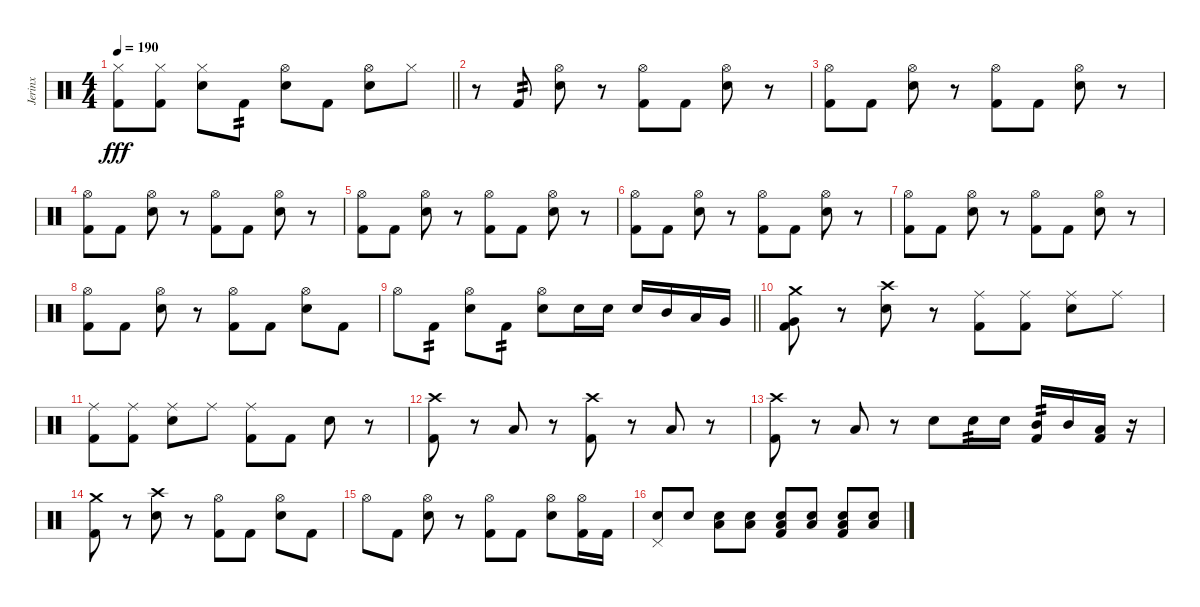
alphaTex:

\track ("Jerinx" "Jerinx") {instrument percussion}
\staff {score}
\articulation defaults
\ts (4 4)
\tempo 190
\clef neutral
\barLineRight lightlight
\ks c
("Hi-Hat (closed)" "Kick (hit) 2").8{dy fff} ("Hi-Hat (closed)" "Kick (hit) 2").8 ("Hi-Hat (closed)" "Electric Snare (hit)").8 "Kick (hit) 2".8{tp 2} ("Hi-Hat (open)" "Electric Snare (hit)").8 "Kick (hit) 2".8 ("Hi-Hat (open)" "Electric Snare (hit)").8 "Hi-Hat (closed)".8 |
\section ("" "")
r.8 "Kick (hit) 2".8{tp 2} ("Hi-Hat (open)" "Electric Snare (hit)").8 r.8 ("Hi-Hat (open)" "Kick (hit) 2").8 "Kick (hit) 2".8 ("Hi-Hat (open)" "Electric Snare (hit)").8 r.8 |
("Hi-Hat (open)" "Kick (hit) 2").8 "Kick (hit) 2".8 ("Hi-Hat (open)" "Electric Snare (hit)").8 r.8 ("Hi-Hat (open)" "Kick (hit) 2").8 "Kick (hit) 2".8 ("Hi-Hat (open)" "Electric Snare (hit)").8 r.8 |
("Hi-Hat (open)" "Kick (hit) 2").8 "Kick (hit) 2".8 ("Hi-Hat (open)" "Electric Snare (hit)").8 r.8 ("Hi-Hat (open)" "Kick (hit) 2").8 "Kick (hit) 2".8 ("Hi-Hat (open)" "Electric Snare (hit)").8 r.8 |
("Hi-Hat (open)" "Kick (hit) 2").8 "Kick (hit) 2".8 ("Hi-Hat (open)" "Electric Snare (hit)").8 r.8 ("Hi-Hat (open)" "Kick (hit) 2").8 "Kick (hit) 2".8 ("Hi-Hat (open)" "Electric Snare (hit)").8 r.8 |
("Hi-Hat (open)" "Kick (hit) 2").8 "Kick (hit) 2".8 ("Hi-Hat (open)" "Electric Snare (hit)").8 r.8 ("Hi-Hat (open)" "Kick (hit) 2").8 "Kick (hit) 2".8 ("Hi-Hat (open)" "Electric Snare (hit)").8 r.8 |
("Hi-Hat (open)" "Kick (hit) 2").8 "Kick (hit) 2".8 ("Hi-Hat (open)" "Electric Snare (hit)").8 r.8 ("Hi-Hat (open)" "Kick (hit) 2").8 "Kick (hit) 2".8 ("Hi-Hat (open)" "Electric Snare (hit)").8 r.8 |
("Hi-Hat (open)" "Kick (hit) 2").8 "Kick (hit) 2".8 ("Hi-Hat (open)" "Electric Snare (hit)").8 r.8 ("Hi-Hat (open)" "Kick (hit) 2").8 "Kick (hit) 2".8 ("Hi-Hat (open)" "Electric Snare (hit)").8 "Kick (hit) 2".8 |
\barLineRight lightlight "Hi-Hat (open)".8 "Kick (hit) 2".8{tp 2}
("Hi-Hat (open)" "Electric Snare (hit)").8 "Kick (hit) 2".8{tp 2} ("Hi-Hat (open)" "Electric Snare (hit)").8 "Electric Snare (hit)".16 "Electric Snare (hit)".16 "Electric Snare (hit)".16 "Mid Tom (hit)".16 "Low Tom (hit)".16 "Very Low Tom (hit)".16 |
\section ("" "")
("Very Low Tom (hit)" "Kick (hit) 2" "Crash medium (hit)").8 r.8 ("Electric Snare (hit)" "Crash high (hit)").8 r.8 ("Kick (hit) 2" "Ride (middle)").8 ("Kick (hit) 2" "Ride (middle)").8 ("Electric Snare (hit)" "Ride (middle)").8 "Ride (middle)".8 |
("Kick (hit) 2" "Ride (middle)").8 ("Kick (hit) 2" "Ride (middle)").8 ("Electric Snare (hit)" "Ride (middle)").8 "Ride (middle)".8 ("Kick (hit) 2" "Ride (middle)").8 "Kick (hit) 2".8 "Electric Snare (hit)".8 r.8 |
("Kick (hit) 2" "Crash high (hit)").8 r.8 "Low Tom (hit)".8 r.8 ("Kick (hit) 2" "Crash high (hit)").8 r.8 "Low Tom (hit)".8 r.8 |
("Kick (hit) 2" "Crash high (hit)").8 r.8 "Low Tom (hit)".8 r.8 "Electric Snare (hit)".8 "Electric Snare (hit)".16{tp 2} "Electric Snare (hit)".16 ("Mid Tom (hit)" "Kick (hit) 2").16{tp 2} "Mid Tom (hit)".16 ("Low Tom (hit)" "Kick (hit) 2").16 r.16 |
("Kick (hit) 2" "Crash medium (hit)").8 r.8 ("Electric Snare (hit)" "Crash high (hit)").8 r.8 ("Hi-Hat (open)" "Kick (hit) 2").8 "Kick (hit) 2".8 ("Hi-Hat (open)" "Electric Snare (hit)").8 "Kick (hit) 2".8 |
"Hi-Hat (open)".8 "Kick (hit) 2".8 ("Hi-Hat (open)" "Electric Snare (hit)").8 r.8 ("Hi-Hat (open)" "Kick (hit) 2").8 "Kick (hit) 2".8 ("Hi-Hat (open)" "Electric Snare (hit)").8 ("Hi-Hat (open)" "Kick (hit) 2").16 "Kick (hit) 2".16 |
("Pedal Hi-Hat (hit)" "Electric Snare (hit)").8 "Electric Snare (hit)".8 ("Electric Snare (hit)" "Low Floor Tom (hit)").8 ("Electric Snare (hit)" "Low Floor Tom (hit)").8 ("Electric Snare (hit)" "Kick (hit) 2" "Low Floor Tom (hit)").8 ("Electric Snare (hit)" "Low Floor Tom (hit)").8 ("Electric Snare (hit)" "Kick (hit) 2" "Low Floor Tom (hit)").8 ("Electric Snare (hit)" "Low Floor Tom (hit)").8
